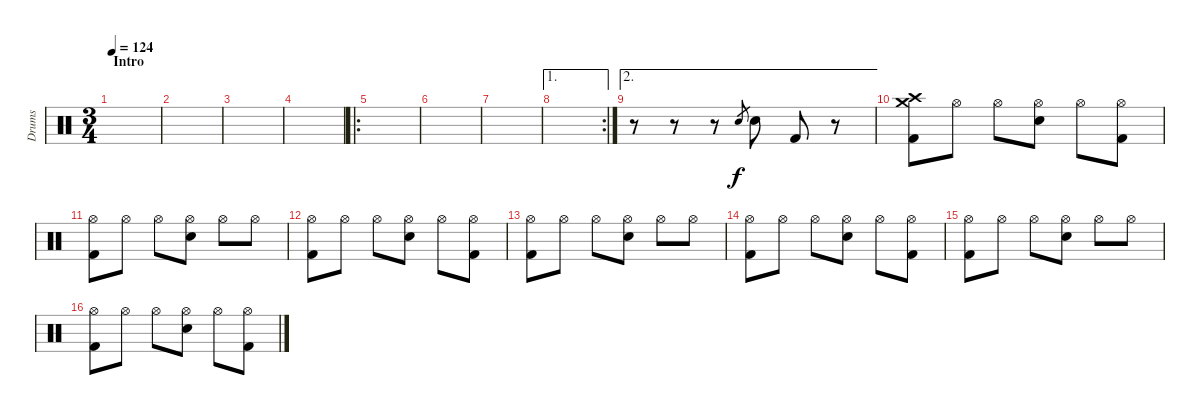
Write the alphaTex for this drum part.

\track ("Drums" "Drums") {instrument percussion}
\staff {score}
\articulation defaults
\ts (3 4)
\section ("" "Intro")
\tempo 124
\clef neutral
\ks c
|
|
|
|
\ro
|
|
|
\ae 1
\rc 2
|
\ae 2
r.8 r.8 r.8 "Electric Snare (hit)".8{gr} "Electric Snare (hit)".8 "Kick (hit) 2".8 r.8 |
("Crash medium (hit)" "Crash high (hit)" "Kick (hit) 2").8 "Hi-Hat (open)".8 "Hi-Hat (open)".8 ("Hi-Hat (open)" "Electric Snare (hit)").8 "Hi-Hat (open)".8 ("Hi-Hat (open)" "Kick (hit) 2").8 |
("Hi-Hat (open)" "Kick (hit) 2").8 "Hi-Hat (open)".8 "Hi-Hat (open)".8 ("Hi-Hat (open)" "Electric Snare (hit)").8 "Hi-Hat (open)".8 "Hi-Hat (open)".8 |
("Hi-Hat (open)" "Kick (hit) 2").8 "Hi-Hat (open)".8 "Hi-Hat (open)".8 ("Hi-Hat (open)" "Electric Snare (hit)").8 "Hi-Hat (open)".8 ("Hi-Hat (open)" "Kick (hit) 2").8 |
("Hi-Hat (open)" "Kick (hit) 2").8 "Hi-Hat (open)".8 "Hi-Hat (open)".8 ("Hi-Hat (open)" "Electric Snare (hit)").8 "Hi-Hat (open)".8 "Hi-Hat (open)".8 |
("Hi-Hat (open)" "Kick (hit) 2").8 "Hi-Hat (open)".8 "Hi-Hat (open)".8 ("Hi-Hat (open)" "Electric Snare (hit)").8 "Hi-Hat (open)".8 ("Hi-Hat (open)" "Kick (hit) 2").8 |
("Hi-Hat (open)" "Kick (hit) 2").8 "Hi-Hat (open)".8 "Hi-Hat (open)".8 ("Hi-Hat (open)" "Electric Snare (hit)").8 "Hi-Hat (open)".8 "Hi-Hat (open)".8 |
("Hi-Hat (open)" "Kick (hit) 2").8 "Hi-Hat (open)".8 "Hi-Hat (open)".8 ("Hi-Hat (open)" "Electric Snare (hit)").8 "Hi-Hat (open)".8 ("Hi-Hat (open)" "Kick (hit) 2").8
